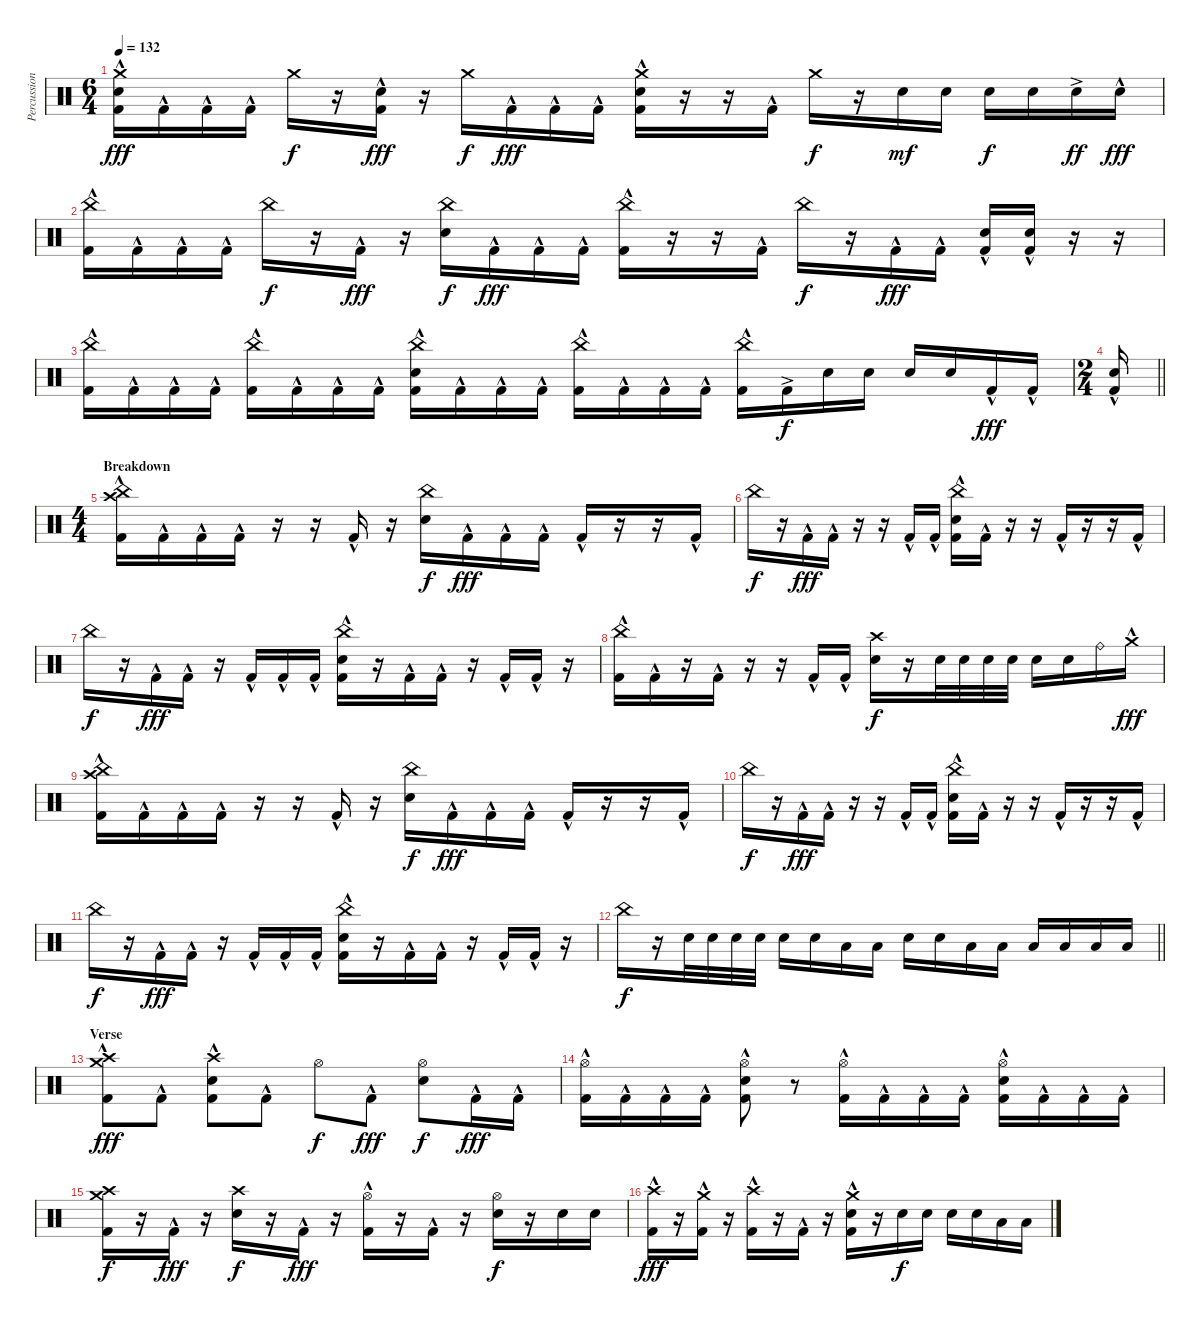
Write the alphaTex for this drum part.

\track ("Percussion" "Percussion") {instrument percussion}
\staff {score}
\articulation defaults
\ts (6 4)
\tempo 132
\clef neutral
\ks c
("Crash medium (hit)" "Electric Snare (hit)" "Kick (hit) 2"{hac}).16{dy fff} "Kick (hit) 2"{hac}.16 "Kick (hit) 2"{hac}.16 "Kick (hit) 2"{hac}.16 "Crash medium (hit)".16{dy f} r.16 ("Electric Snare (hit)" "Kick (hit) 2"{hac}).16{dy fff} r.16 "Crash medium (hit)".16{dy f} "Kick (hit) 2"{hac}.16{dy fff} "Kick (hit) 2"{hac}.16 "Kick (hit) 2"{hac}.16 ("Crash medium (hit)" "Electric Snare (hit)" "Kick (hit) 2"{hac}).16 r.16 r.16 "Kick (hit) 2"{hac}.16 "Crash medium (hit)".16{dy f} r.16 "Electric Snare (hit)".16{dy mf} "Electric Snare (hit)".16 "Electric Snare (hit)".16{dy f} "Electric Snare (hit)".16 "Electric Snare (hit)"{ac}.16{dy ff} "Electric Snare (hit)"{hac}.16{dy fff} |
("China (hit)" "Kick (hit) 2"{hac}).16 "Kick (hit) 2"{hac}.16 "Kick (hit) 2"{hac}.16 "Kick (hit) 2"{hac}.16 "China (hit)".16{dy f} r.16 "Kick (hit) 2"{hac}.16{dy fff} r.16 ("China (hit)" "Electric Snare (hit)").16{dy f} "Kick (hit) 2"{hac}.16{dy fff} "Kick (hit) 2"{hac}.16 "Kick (hit) 2"{hac}.16 ("China (hit)" "Kick (hit) 2"{hac}).16 r.16 r.16 "Kick (hit) 2"{hac}.16 "China (hit)".16{dy f} r.16 "Kick (hit) 2"{hac}.16{dy fff} "Kick (hit) 2"{hac}.16 ("Electric Snare (hit)" "Kick (hit) 2"{hac}).16 ("Electric Snare (hit)" "Kick (hit) 2"{hac}).16 r.16 r.16 |
("China (hit)" "Kick (hit) 2"{hac}).16 "Kick (hit) 2"{hac}.16 "Kick (hit) 2"{hac}.16 "Kick (hit) 2"{hac}.16 ("China (hit)" "Kick (hit) 2"{hac}).16 "Kick (hit) 2"{hac}.16 "Kick (hit) 2"{hac}.16 "Kick (hit) 2"{hac}.16 ("China (hit)" "Electric Snare (hit)" "Kick (hit) 2"{hac}).16 "Kick (hit) 2"{hac}.16 "Kick (hit) 2"{hac}.16 "Kick (hit) 2"{hac}.16 ("China (hit)" "Kick (hit) 2"{hac}).16 "Kick (hit) 2"{hac}.16 "Kick (hit) 2"{hac}.16 "Kick (hit) 2"{hac}.16 ("China (hit)" "Kick (hit) 2"{hac}).16 "Kick (hit) 2"{ac}.16{dy f} "Electric Snare (hit)".16 "Electric Snare (hit)".16 "Electric Snare (hit)".16 "Electric Snare (hit)".16 "Kick (hit) 2"{hac}.16{dy fff} "Kick (hit) 2"{hac}.16 |
\ts (2 4)
\barLineRight lightlight
("Electric Snare (hit)" "Kick (hit) 2"{hac}).16 |
\ts (4 4)
\section ("" "Breakdown")
("China (hit)" "Crash high (hit)" "Kick (hit) 2"{hac}).16 "Kick (hit) 2"{hac}.16 "Kick (hit) 2"{hac}.16 "Kick (hit) 2"{hac}.16 r.16 r.16 "Kick (hit) 2"{hac}.16 r.16 ("China (hit)" "Electric Snare (hit)").16{dy f} "Kick (hit) 2"{hac}.16{dy fff} "Kick (hit) 2"{hac}.16 "Kick (hit) 2"{hac}.16 "Kick (hit) 2"{hac}.16 r.16 r.16 "Kick (hit) 2"{hac}.16 |
"China (hit)".16{dy f} r.16 "Kick (hit) 2"{hac}.16{dy fff} "Kick (hit) 2"{hac}.16 r.16 r.16 "Kick (hit) 2"{hac}.16 "Kick (hit) 2"{hac}.16 ("China (hit)" "Electric Snare (hit)" "Kick (hit) 2"{hac}).16 "Kick (hit) 2"{hac}.16 r.16 r.16 "Kick (hit) 2"{hac}.16 r.16 r.16 "Kick (hit) 2"{hac}.16 |
"China (hit)".16{dy f} r.16 "Kick (hit) 2"{hac}.16{dy fff} "Kick (hit) 2"{hac}.16 r.16 "Kick (hit) 2"{hac}.16 "Kick (hit) 2"{hac}.16 "Kick (hit) 2"{hac}.16 ("China (hit)" "Electric Snare (hit)" "Kick (hit) 2"{hac}).16 r.16 "Kick (hit) 2"{hac}.16 "Kick (hit) 2"{hac}.16 r.16 "Kick (hit) 2"{hac}.16 "Kick (hit) 2"{hac}.16 r.16 |
("China (hit)" "Kick (hit) 2"{hac}).16 "Kick (hit) 2"{hac}.16 r.16 "Kick (hit) 2"{hac}.16 r.16 r.16 "Kick (hit) 2"{hac}.16 "Kick (hit) 2"{hac}.16 ("Crash high (hit)" "Electric Snare (hit)").16{dy f} r.16 "Electric Snare (hit)".32 "Electric Snare (hit)".32 "Electric Snare (hit)".32 "Electric Snare (hit)".32 "Electric Snare (hit)".16 "Electric Snare (hit)".16 "Ride (bell)".16 "Crash medium (hit)"{hac}.16{dy fff} |
("China (hit)" "Crash high (hit)" "Kick (hit) 2"{hac}).16 "Kick (hit) 2"{hac}.16 "Kick (hit) 2"{hac}.16 "Kick (hit) 2"{hac}.16 r.16 r.16 "Kick (hit) 2"{hac}.16 r.16 ("China (hit)" "Electric Snare (hit)").16{dy f} "Kick (hit) 2"{hac}.16{dy fff} "Kick (hit) 2"{hac}.16 "Kick (hit) 2"{hac}.16 "Kick (hit) 2"{hac}.16 r.16 r.16 "Kick (hit) 2"{hac}.16 |
"China (hit)".16{dy f} r.16 "Kick (hit) 2"{hac}.16{dy fff} "Kick (hit) 2"{hac}.16 r.16 r.16 "Kick (hit) 2"{hac}.16 "Kick (hit) 2"{hac}.16 ("China (hit)" "Electric Snare (hit)" "Kick (hit) 2"{hac}).16 "Kick (hit) 2"{hac}.16 r.16 r.16 "Kick (hit) 2"{hac}.16 r.16 r.16 "Kick (hit) 2"{hac}.16 |
"China (hit)".16{dy f} r.16 "Kick (hit) 2"{hac}.16{dy fff} "Kick (hit) 2"{hac}.16 r.16 "Kick (hit) 2"{hac}.16 "Kick (hit) 2"{hac}.16 "Kick (hit) 2"{hac}.16 ("China (hit)" "Electric Snare (hit)" "Kick (hit) 2"{hac}).16 r.16 "Kick (hit) 2"{hac}.16 "Kick (hit) 2"{hac}.16 r.16 "Kick (hit) 2"{hac}.16 "Kick (hit) 2"{hac}.16 r.16 |
\barLineRight lightlight "China (hit)".16{dy f}
r.16 "Electric Snare (hit)".32 "Electric Snare (hit)".32 "Electric Snare (hit)".32 "Electric Snare (hit)".32 "Electric Snare (hit)".16 "Electric Snare (hit)".16 "Low Tom (hit)".16 "Low Tom (hit)".16 "Electric Snare (hit)".16 "Electric Snare (hit)".16 "Low Tom (hit)".16 "Low Tom (hit)".16 "Low Floor Tom (hit)".16 "Low Floor Tom (hit)".16 "Low Floor Tom (hit)".16 "Low Floor Tom (hit)".16 |
\section ("" "Verse")
("Crash medium (hit)" "Crash high (hit)" "Kick (hit) 2"{hac}).8{dy fff} "Kick (hit) 2"{hac}.8 ("Crash high (hit)" "Electric Snare (hit)" "Kick (hit) 2"{hac}).8 "Kick (hit) 2"{hac}.8 "Hi-Hat (open)".8{dy f} "Kick (hit) 2"{hac}.8{dy fff} ("Hi-Hat (open)" "Electric Snare (hit)").8{dy f} "Kick (hit) 2"{hac}.16{dy fff} "Kick (hit) 2"{hac}.16 |
("Hi-Hat (open)" "Kick (hit) 2"{hac}).16 "Kick (hit) 2"{hac}.16 "Kick (hit) 2"{hac}.16 "Kick (hit) 2"{hac}.16 ("Hi-Hat (open)" "Electric Snare (hit)" "Kick (hit) 2"{hac}).8 r.8 ("Hi-Hat (open)" "Kick (hit) 2"{hac}).16 "Kick (hit) 2"{hac}.16 "Kick (hit) 2"{hac}.16 "Kick (hit) 2"{hac}.16 ("Hi-Hat (open)" "Electric Snare (hit)" "Kick (hit) 2"{hac}).16 "Kick (hit) 2"{hac}.16 "Kick (hit) 2"{hac}.16 "Kick (hit) 2"{hac}.16 |
("Crash medium (hit)" "Crash high (hit)" "Kick (hit) 2").16{dy f} r.16 "Kick (hit) 2"{hac}.16{dy fff} r.16 ("Crash high (hit)" "Electric Snare (hit)").16{dy f} r.16 "Kick (hit) 2"{hac}.16{dy fff} r.16 ("Hi-Hat (open)" "Kick (hit) 2"{hac}).16 r.16 "Kick (hit) 2"{hac}.16 r.16 ("Hi-Hat (open)" "Electric Snare (hit)").16{dy f} r.16 "Electric Snare (hit)".16 "Electric Snare (hit)".16 |
("Crash high (hit)" "Kick (hit) 2"{hac}).16{dy fff} r.16 ("Crash medium (hit)" "Kick (hit) 2"{hac}).16 r.16 ("Crash high (hit)" "Kick (hit) 2"{hac}).16 r.16 "Kick (hit) 2"{hac}.16 r.16 ("Crash medium (hit)" "Electric Snare (hit)" "Kick (hit) 2"{hac}).16 r.16 "Electric Snare (hit)".16{dy f} "Electric Snare (hit)".16 "Electric Snare (hit)".16 "Electric Snare (hit)".16 "Low Tom (hit)".16 "Low Tom (hit)".16
